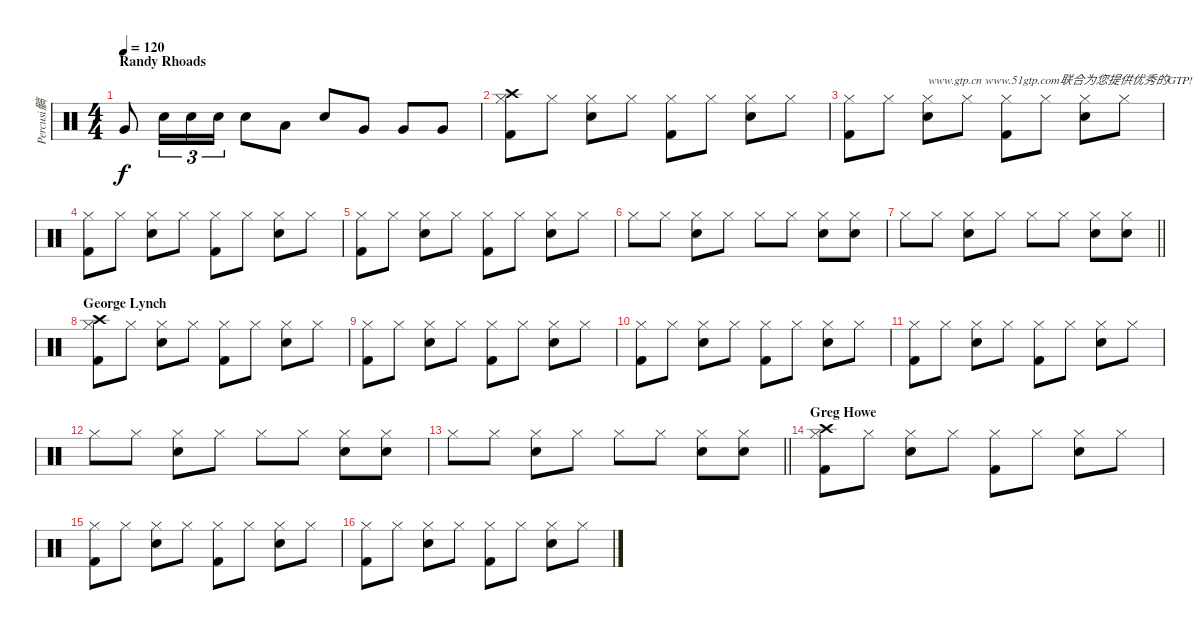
\track ("Percusi髇" "Percusi髇") {instrument percussion}
\staff {score}
\articulation defaults
\ts (4 4)
\section ("" "Randy Rhoads")
\tempo 120
\clef neutral
\ks c "Very Low Tom (hit)".8{dy f} "Electric Snare (hit)".16{tu (3 2)} "Electric Snare (hit)".16{tu (3 2)} "Electric Snare (hit)".16{tu (3 2)} "Electric Snare (hit)".8 "Low Floor Tom (hit)".8 "Electric Snare (hit)".8 "Very Low Tom (hit)".8 "Very Low Tom (hit)".8 "Very Low Tom (hit)".8
|
("Kick (hit) 2" "Hi-Hat (closed)" "Crash high (hit)").8 "Hi-Hat (closed)".8 ("Electric Snare (hit)" "Hi-Hat (closed)").8 "Hi-Hat (closed)".8 ("Kick (hit) 2" "Hi-Hat (closed)").8 "Hi-Hat (closed)".8 ("Electric Snare (hit)" "Hi-Hat (closed)").8 "Hi-Hat (closed)".8 |
("Kick (hit) 2" "Hi-Hat (closed)").8 "Hi-Hat (closed)".8 ("Electric Snare (hit)" "Hi-Hat (closed)").8{txt "www.gtp.cn www.51gtp.com联合为您提供优秀的GTP!"} "Hi-Hat (closed)".8 ("Kick (hit) 2" "Hi-Hat (closed)").8 "Hi-Hat (closed)".8 ("Electric Snare (hit)" "Hi-Hat (closed)").8 "Hi-Hat (closed)".8 |
("Kick (hit) 2" "Hi-Hat (closed)").8 "Hi-Hat (closed)".8 ("Electric Snare (hit)" "Hi-Hat (closed)").8 "Hi-Hat (closed)".8 ("Kick (hit) 2" "Hi-Hat (closed)").8 "Hi-Hat (closed)".8 ("Electric Snare (hit)" "Hi-Hat (closed)").8 "Hi-Hat (closed)".8 |
("Kick (hit) 2" "Hi-Hat (closed)").8 "Hi-Hat (closed)".8 ("Electric Snare (hit)" "Hi-Hat (closed)").8 "Hi-Hat (closed)".8 ("Kick (hit) 2" "Hi-Hat (closed)").8 "Hi-Hat (closed)".8 ("Electric Snare (hit)" "Hi-Hat (closed)").8 "Hi-Hat (closed)".8 |
"Hi-Hat (closed)".8 "Hi-Hat (closed)".8 ("Electric Snare (hit)" "Hi-Hat (closed)").8 "Hi-Hat (closed)".8 "Hi-Hat (closed)".8 "Hi-Hat (closed)".8 ("Electric Snare (hit)" "Hi-Hat (closed)").8 ("Electric Snare (hit)" "Hi-Hat (closed)").8 |
\barLineRight lightlight "Hi-Hat (closed)".8 "Hi-Hat (closed)".8
("Electric Snare (hit)" "Hi-Hat (closed)").8 "Hi-Hat (closed)".8 "Hi-Hat (closed)".8 "Hi-Hat (closed)".8 ("Electric Snare (hit)" "Hi-Hat (closed)").8 ("Electric Snare (hit)" "Hi-Hat (closed)").8 |
\section ("" "George Lynch")
("Kick (hit) 2" "Hi-Hat (closed)" "Crash high (hit)").8 "Hi-Hat (closed)".8 ("Electric Snare (hit)" "Hi-Hat (closed)").8 "Hi-Hat (closed)".8 ("Kick (hit) 2" "Hi-Hat (closed)").8 "Hi-Hat (closed)".8 ("Electric Snare (hit)" "Hi-Hat (closed)").8 "Hi-Hat (closed)".8 |
("Kick (hit) 2" "Hi-Hat (closed)").8 "Hi-Hat (closed)".8 ("Electric Snare (hit)" "Hi-Hat (closed)").8 "Hi-Hat (closed)".8 ("Kick (hit) 2" "Hi-Hat (closed)").8 "Hi-Hat (closed)".8 ("Electric Snare (hit)" "Hi-Hat (closed)").8 "Hi-Hat (closed)".8 |
("Kick (hit) 2" "Hi-Hat (closed)").8 "Hi-Hat (closed)".8 ("Electric Snare (hit)" "Hi-Hat (closed)").8 "Hi-Hat (closed)".8 ("Kick (hit) 2" "Hi-Hat (closed)").8 "Hi-Hat (closed)".8 ("Electric Snare (hit)" "Hi-Hat (closed)").8 "Hi-Hat (closed)".8 |
("Kick (hit) 2" "Hi-Hat (closed)").8 "Hi-Hat (closed)".8 ("Electric Snare (hit)" "Hi-Hat (closed)").8 "Hi-Hat (closed)".8 ("Kick (hit) 2" "Hi-Hat (closed)").8 "Hi-Hat (closed)".8 ("Electric Snare (hit)" "Hi-Hat (closed)").8 "Hi-Hat (closed)".8 |
"Hi-Hat (closed)".8 "Hi-Hat (closed)".8 ("Electric Snare (hit)" "Hi-Hat (closed)").8 "Hi-Hat (closed)".8 "Hi-Hat (closed)".8 "Hi-Hat (closed)".8 ("Electric Snare (hit)" "Hi-Hat (closed)").8 ("Electric Snare (hit)" "Hi-Hat (closed)").8 |
\barLineRight lightlight "Hi-Hat (closed)".8 "Hi-Hat (closed)".8
("Electric Snare (hit)" "Hi-Hat (closed)").8 "Hi-Hat (closed)".8 "Hi-Hat (closed)".8 "Hi-Hat (closed)".8 ("Electric Snare (hit)" "Hi-Hat (closed)").8 ("Electric Snare (hit)" "Hi-Hat (closed)").8 |
\section ("" "Greg Howe")
("Kick (hit) 2" "Hi-Hat (closed)" "Crash high (hit)").8 "Hi-Hat (closed)".8 ("Electric Snare (hit)" "Hi-Hat (closed)").8 "Hi-Hat (closed)".8 ("Kick (hit) 2" "Hi-Hat (closed)").8 "Hi-Hat (closed)".8 ("Electric Snare (hit)" "Hi-Hat (closed)").8 "Hi-Hat (closed)".8 |
("Kick (hit) 2" "Hi-Hat (closed)").8 "Hi-Hat (closed)".8 ("Electric Snare (hit)" "Hi-Hat (closed)").8 "Hi-Hat (closed)".8 ("Kick (hit) 2" "Hi-Hat (closed)").8 "Hi-Hat (closed)".8 ("Electric Snare (hit)" "Hi-Hat (closed)").8 "Hi-Hat (closed)".8 |
("Kick (hit) 2" "Hi-Hat (closed)").8 "Hi-Hat (closed)".8 ("Electric Snare (hit)" "Hi-Hat (closed)").8 "Hi-Hat (closed)".8 ("Kick (hit) 2" "Hi-Hat (closed)").8 "Hi-Hat (closed)".8 ("Electric Snare (hit)" "Hi-Hat (closed)").8 "Hi-Hat (closed)".8
